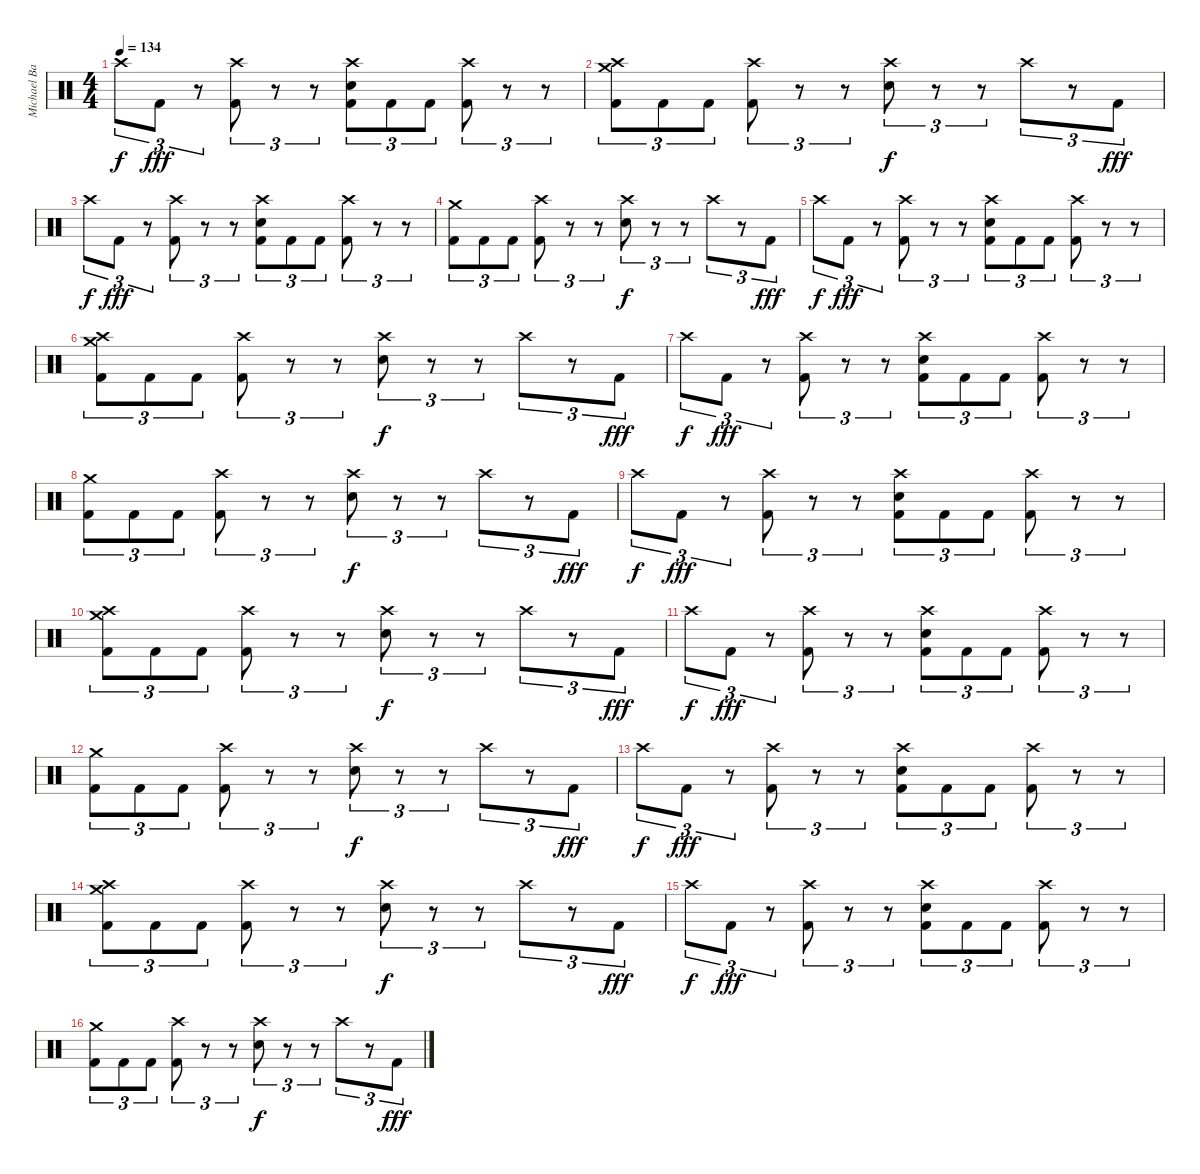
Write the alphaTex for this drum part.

\track ("Michael Bartlett " "Michael Ba") {instrument percussion}
\staff {score}
\articulation defaults
\ts (4 4)
\tempo 134
\clef neutral
\ks c "Crash high (hit)".8{tu (3 2) dy f} "Kick (hit) 2".8{tu (3 2) dy fff}
r.8{tu (3 2)} ("Crash high (hit)" "Kick (hit) 2").8{tu (3 2)} r.8{tu (3 2)} r.8{tu (3 2)} ("Crash high (hit)" "Electric Snare (hit)" "Kick (hit) 2").8{tu (3 2)} "Kick (hit) 2".8{tu (3 2)} "Kick (hit) 2".8{tu (3 2)} ("Crash high (hit)" "Kick (hit) 2").8{tu (3 2)} r.8{tu (3 2)} r.8{tu (3 2)} |
("Crash high (hit)" "Crash medium (hit)" "Kick (hit) 2").8{tu (3 2)} "Kick (hit) 2".8{tu (3 2)} "Kick (hit) 2".8{tu (3 2)} ("Crash high (hit)" "Kick (hit) 2").8{tu (3 2)} r.8{tu (3 2)} r.8{tu (3 2)} ("Crash high (hit)" "Electric Snare (hit)").8{tu (3 2) dy f} r.8{tu (3 2)} r.8{tu (3 2)} "Crash high (hit)".8{tu (3 2)} r.8{tu (3 2)} "Kick (hit) 2".8{tu (3 2) dy fff} |
"Crash high (hit)".8{tu (3 2) dy f} "Kick (hit) 2".8{tu (3 2) dy fff} r.8{tu (3 2)} ("Crash high (hit)" "Kick (hit) 2").8{tu (3 2)} r.8{tu (3 2)} r.8{tu (3 2)} ("Crash high (hit)" "Electric Snare (hit)" "Kick (hit) 2").8{tu (3 2)} "Kick (hit) 2".8{tu (3 2)} "Kick (hit) 2".8{tu (3 2)} ("Crash high (hit)" "Kick (hit) 2").8{tu (3 2)} r.8{tu (3 2)} r.8{tu (3 2)} |
("Crash medium (hit)" "Kick (hit) 2").8{tu (3 2)} "Kick (hit) 2".8{tu (3 2)} "Kick (hit) 2".8{tu (3 2)} ("Crash high (hit)" "Kick (hit) 2").8{tu (3 2)} r.8{tu (3 2)} r.8{tu (3 2)} ("Crash high (hit)" "Electric Snare (hit)").8{tu (3 2) dy f} r.8{tu (3 2)} r.8{tu (3 2)} "Crash high (hit)".8{tu (3 2)} r.8{tu (3 2)} "Kick (hit) 2".8{tu (3 2) dy fff} |
"Crash high (hit)".8{tu (3 2) dy f} "Kick (hit) 2".8{tu (3 2) dy fff} r.8{tu (3 2)} ("Crash high (hit)" "Kick (hit) 2").8{tu (3 2)} r.8{tu (3 2)} r.8{tu (3 2)} ("Crash high (hit)" "Electric Snare (hit)" "Kick (hit) 2").8{tu (3 2)} "Kick (hit) 2".8{tu (3 2)} "Kick (hit) 2".8{tu (3 2)} ("Crash high (hit)" "Kick (hit) 2").8{tu (3 2)} r.8{tu (3 2)} r.8{tu (3 2)} |
("Crash high (hit)" "Crash medium (hit)" "Kick (hit) 2").8{tu (3 2)} "Kick (hit) 2".8{tu (3 2)} "Kick (hit) 2".8{tu (3 2)} ("Crash high (hit)" "Kick (hit) 2").8{tu (3 2)} r.8{tu (3 2)} r.8{tu (3 2)} ("Crash high (hit)" "Electric Snare (hit)").8{tu (3 2) dy f} r.8{tu (3 2)} r.8{tu (3 2)} "Crash high (hit)".8{tu (3 2)} r.8{tu (3 2)} "Kick (hit) 2".8{tu (3 2) dy fff} |
"Crash high (hit)".8{tu (3 2) dy f} "Kick (hit) 2".8{tu (3 2) dy fff} r.8{tu (3 2)} ("Crash high (hit)" "Kick (hit) 2").8{tu (3 2)} r.8{tu (3 2)} r.8{tu (3 2)} ("Crash high (hit)" "Electric Snare (hit)" "Kick (hit) 2").8{tu (3 2)} "Kick (hit) 2".8{tu (3 2)} "Kick (hit) 2".8{tu (3 2)} ("Crash high (hit)" "Kick (hit) 2").8{tu (3 2)} r.8{tu (3 2)} r.8{tu (3 2)} |
("Crash medium (hit)" "Kick (hit) 2").8{tu (3 2)} "Kick (hit) 2".8{tu (3 2)} "Kick (hit) 2".8{tu (3 2)} ("Crash high (hit)" "Kick (hit) 2").8{tu (3 2)} r.8{tu (3 2)} r.8{tu (3 2)} ("Crash high (hit)" "Electric Snare (hit)").8{tu (3 2) dy f} r.8{tu (3 2)} r.8{tu (3 2)} "Crash high (hit)".8{tu (3 2)} r.8{tu (3 2)} "Kick (hit) 2".8{tu (3 2) dy fff} |
"Crash high (hit)".8{tu (3 2) dy f} "Kick (hit) 2".8{tu (3 2) dy fff} r.8{tu (3 2)} ("Crash high (hit)" "Kick (hit) 2").8{tu (3 2)} r.8{tu (3 2)} r.8{tu (3 2)} ("Crash high (hit)" "Electric Snare (hit)" "Kick (hit) 2").8{tu (3 2)} "Kick (hit) 2".8{tu (3 2)} "Kick (hit) 2".8{tu (3 2)} ("Crash high (hit)" "Kick (hit) 2").8{tu (3 2)} r.8{tu (3 2)} r.8{tu (3 2)} |
("Crash high (hit)" "Crash medium (hit)" "Kick (hit) 2").8{tu (3 2)} "Kick (hit) 2".8{tu (3 2)} "Kick (hit) 2".8{tu (3 2)} ("Crash high (hit)" "Kick (hit) 2").8{tu (3 2)} r.8{tu (3 2)} r.8{tu (3 2)} ("Crash high (hit)" "Electric Snare (hit)").8{tu (3 2) dy f} r.8{tu (3 2)} r.8{tu (3 2)} "Crash high (hit)".8{tu (3 2)} r.8{tu (3 2)} "Kick (hit) 2".8{tu (3 2) dy fff} |
"Crash high (hit)".8{tu (3 2) dy f} "Kick (hit) 2".8{tu (3 2) dy fff} r.8{tu (3 2)} ("Crash high (hit)" "Kick (hit) 2").8{tu (3 2)} r.8{tu (3 2)} r.8{tu (3 2)} ("Crash high (hit)" "Electric Snare (hit)" "Kick (hit) 2").8{tu (3 2)} "Kick (hit) 2".8{tu (3 2)} "Kick (hit) 2".8{tu (3 2)} ("Crash high (hit)" "Kick (hit) 2").8{tu (3 2)} r.8{tu (3 2)} r.8{tu (3 2)} |
("Crash medium (hit)" "Kick (hit) 2").8{tu (3 2)} "Kick (hit) 2".8{tu (3 2)} "Kick (hit) 2".8{tu (3 2)} ("Crash high (hit)" "Kick (hit) 2").8{tu (3 2)} r.8{tu (3 2)} r.8{tu (3 2)} ("Crash high (hit)" "Electric Snare (hit)").8{tu (3 2) dy f} r.8{tu (3 2)} r.8{tu (3 2)} "Crash high (hit)".8{tu (3 2)} r.8{tu (3 2)} "Kick (hit) 2".8{tu (3 2) dy fff} |
"Crash high (hit)".8{tu (3 2) dy f} "Kick (hit) 2".8{tu (3 2) dy fff} r.8{tu (3 2)} ("Crash high (hit)" "Kick (hit) 2").8{tu (3 2)} r.8{tu (3 2)} r.8{tu (3 2)} ("Crash high (hit)" "Electric Snare (hit)" "Kick (hit) 2").8{tu (3 2)} "Kick (hit) 2".8{tu (3 2)} "Kick (hit) 2".8{tu (3 2)} ("Crash high (hit)" "Kick (hit) 2").8{tu (3 2)} r.8{tu (3 2)} r.8{tu (3 2)} |
("Crash high (hit)" "Crash medium (hit)" "Kick (hit) 2").8{tu (3 2)} "Kick (hit) 2".8{tu (3 2)} "Kick (hit) 2".8{tu (3 2)} ("Crash high (hit)" "Kick (hit) 2").8{tu (3 2)} r.8{tu (3 2)} r.8{tu (3 2)} ("Crash high (hit)" "Electric Snare (hit)").8{tu (3 2) dy f} r.8{tu (3 2)} r.8{tu (3 2)} "Crash high (hit)".8{tu (3 2)} r.8{tu (3 2)} "Kick (hit) 2".8{tu (3 2) dy fff} |
"Crash high (hit)".8{tu (3 2) dy f} "Kick (hit) 2".8{tu (3 2) dy fff} r.8{tu (3 2)} ("Crash high (hit)" "Kick (hit) 2").8{tu (3 2)} r.8{tu (3 2)} r.8{tu (3 2)} ("Crash high (hit)" "Electric Snare (hit)" "Kick (hit) 2").8{tu (3 2)} "Kick (hit) 2".8{tu (3 2)} "Kick (hit) 2".8{tu (3 2)} ("Crash high (hit)" "Kick (hit) 2").8{tu (3 2)} r.8{tu (3 2)} r.8{tu (3 2)} |
("Crash medium (hit)" "Kick (hit) 2").8{tu (3 2)} "Kick (hit) 2".8{tu (3 2)} "Kick (hit) 2".8{tu (3 2)} ("Crash high (hit)" "Kick (hit) 2").8{tu (3 2)} r.8{tu (3 2)} r.8{tu (3 2)} ("Crash high (hit)" "Electric Snare (hit)").8{tu (3 2) dy f} r.8{tu (3 2)} r.8{tu (3 2)} "Crash high (hit)".8{tu (3 2)} r.8{tu (3 2)} "Kick (hit) 2".8{tu (3 2) dy fff}
